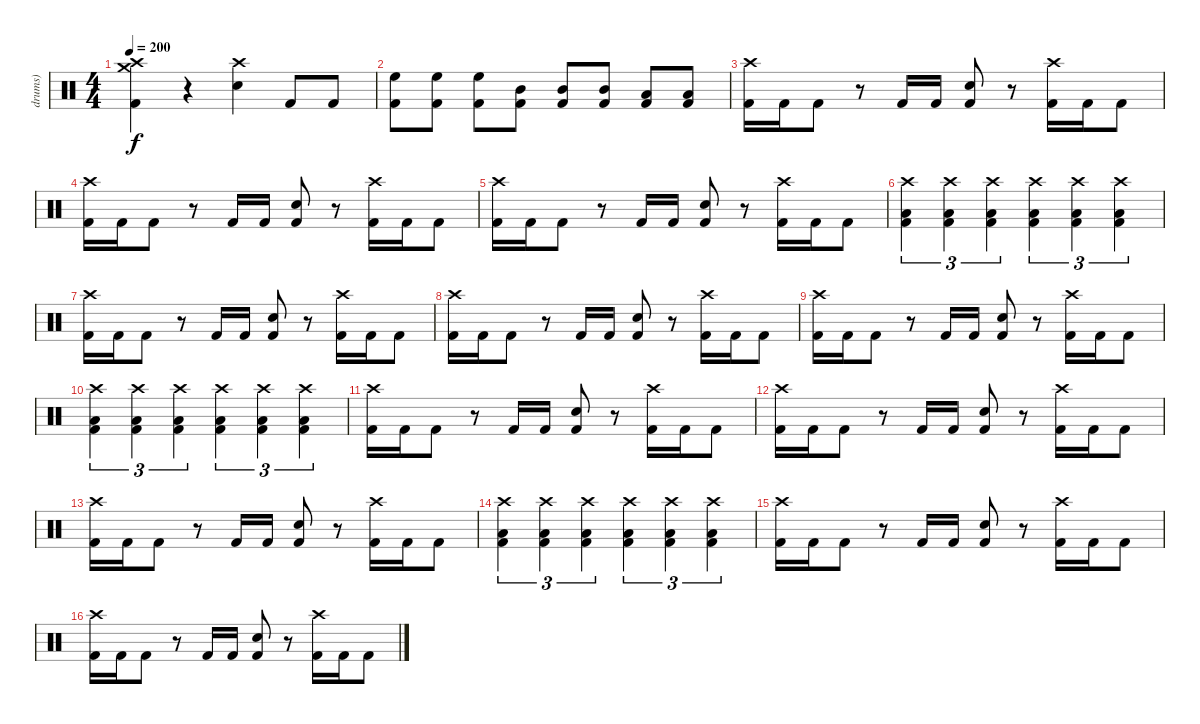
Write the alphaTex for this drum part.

\track ("drums)" "drums)") {instrument percussion}
\staff {score}
\articulation defaults
\ts (4 4)
\tempo 200
\clef neutral
\ks c
("Crash high (hit)" "Crash medium (hit)" "Kick (hit) 2").4{dy f} r.4 ("Crash high (hit)" "Electric Snare (hit)").4 "Kick (hit) 2".8 "Kick (hit) 2".8 |
("High Floor Tom (hit)" "Kick (hit) 2").8 ("High Floor Tom (hit)" "Kick (hit) 2").8 ("High Floor Tom (hit)" "Kick (hit) 2").8 ("Mid Tom (hit)" "Kick (hit) 2").8 ("Mid Tom (hit)" "Kick (hit) 2").8 ("Mid Tom (hit)" "Kick (hit) 2").8 ("Low Floor Tom (hit)" "Kick (hit) 2").8 ("Low Floor Tom (hit)" "Kick (hit) 2").8 |
("Crash high (hit)" "Kick (hit) 2").16 "Kick (hit) 2".16 "Kick (hit) 2".8 r.8 "Kick (hit) 2".16 "Kick (hit) 2".16 ("Electric Snare (hit)" "Kick (hit) 2").8 r.8 ("Crash high (hit)" "Kick (hit) 2").16 "Kick (hit) 2".16 "Kick (hit) 2".8 |
("Crash high (hit)" "Kick (hit) 2").16 "Kick (hit) 2".16 "Kick (hit) 2".8 r.8 "Kick (hit) 2".16 "Kick (hit) 2".16 ("Electric Snare (hit)" "Kick (hit) 2").8 r.8 ("Crash high (hit)" "Kick (hit) 2").16 "Kick (hit) 2".16 "Kick (hit) 2".8 |
("Crash high (hit)" "Kick (hit) 2").16 "Kick (hit) 2".16 "Kick (hit) 2".8 r.8 "Kick (hit) 2".16 "Kick (hit) 2".16 ("Electric Snare (hit)" "Kick (hit) 2").8 r.8 ("Crash high (hit)" "Kick (hit) 2").16 "Kick (hit) 2".16 "Kick (hit) 2".8 |
("Crash high (hit)" "Low Floor Tom (hit)" "Kick (hit) 2").4{tu (3 2)} ("Crash high (hit)" "Low Floor Tom (hit)" "Kick (hit) 2").4{tu (3 2)} ("Crash high (hit)" "Low Floor Tom (hit)" "Kick (hit) 2").4{tu (3 2)} ("Crash high (hit)" "Low Floor Tom (hit)" "Kick (hit) 2").4{tu (3 2)} ("Crash high (hit)" "Low Floor Tom (hit)" "Kick (hit) 2").4{tu (3 2)} ("Crash high (hit)" "Low Floor Tom (hit)" "Kick (hit) 2").4{tu (3 2)} |
("Crash high (hit)" "Kick (hit) 2").16 "Kick (hit) 2".16 "Kick (hit) 2".8 r.8 "Kick (hit) 2".16 "Kick (hit) 2".16 ("Electric Snare (hit)" "Kick (hit) 2").8 r.8 ("Crash high (hit)" "Kick (hit) 2").16 "Kick (hit) 2".16 "Kick (hit) 2".8 |
("Crash high (hit)" "Kick (hit) 2").16 "Kick (hit) 2".16 "Kick (hit) 2".8 r.8 "Kick (hit) 2".16 "Kick (hit) 2".16 ("Electric Snare (hit)" "Kick (hit) 2").8 r.8 ("Crash high (hit)" "Kick (hit) 2").16 "Kick (hit) 2".16 "Kick (hit) 2".8 |
("Crash high (hit)" "Kick (hit) 2").16 "Kick (hit) 2".16 "Kick (hit) 2".8 r.8 "Kick (hit) 2".16 "Kick (hit) 2".16 ("Electric Snare (hit)" "Kick (hit) 2").8 r.8 ("Crash high (hit)" "Kick (hit) 2").16 "Kick (hit) 2".16 "Kick (hit) 2".8 |
("Crash high (hit)" "Low Floor Tom (hit)" "Kick (hit) 2").4{tu (3 2)} ("Crash high (hit)" "Low Floor Tom (hit)" "Kick (hit) 2").4{tu (3 2)} ("Crash high (hit)" "Low Floor Tom (hit)" "Kick (hit) 2").4{tu (3 2)} ("Crash high (hit)" "Low Floor Tom (hit)" "Kick (hit) 2").4{tu (3 2)} ("Crash high (hit)" "Low Floor Tom (hit)" "Kick (hit) 2").4{tu (3 2)} ("Crash high (hit)" "Low Floor Tom (hit)" "Kick (hit) 2").4{tu (3 2)} |
("Crash high (hit)" "Kick (hit) 2").16 "Kick (hit) 2".16 "Kick (hit) 2".8 r.8 "Kick (hit) 2".16 "Kick (hit) 2".16 ("Electric Snare (hit)" "Kick (hit) 2").8 r.8 ("Crash high (hit)" "Kick (hit) 2").16 "Kick (hit) 2".16 "Kick (hit) 2".8 |
("Crash high (hit)" "Kick (hit) 2").16 "Kick (hit) 2".16 "Kick (hit) 2".8 r.8 "Kick (hit) 2".16 "Kick (hit) 2".16 ("Electric Snare (hit)" "Kick (hit) 2").8 r.8 ("Crash high (hit)" "Kick (hit) 2").16 "Kick (hit) 2".16 "Kick (hit) 2".8 |
("Crash high (hit)" "Kick (hit) 2").16 "Kick (hit) 2".16 "Kick (hit) 2".8 r.8 "Kick (hit) 2".16 "Kick (hit) 2".16 ("Electric Snare (hit)" "Kick (hit) 2").8 r.8 ("Crash high (hit)" "Kick (hit) 2").16 "Kick (hit) 2".16 "Kick (hit) 2".8 |
("Crash high (hit)" "Low Floor Tom (hit)" "Kick (hit) 2").4{tu (3 2)} ("Crash high (hit)" "Low Floor Tom (hit)" "Kick (hit) 2").4{tu (3 2)} ("Crash high (hit)" "Low Floor Tom (hit)" "Kick (hit) 2").4{tu (3 2)} ("Crash high (hit)" "Low Floor Tom (hit)" "Kick (hit) 2").4{tu (3 2)} ("Crash high (hit)" "Low Floor Tom (hit)" "Kick (hit) 2").4{tu (3 2)} ("Crash high (hit)" "Low Floor Tom (hit)" "Kick (hit) 2").4{tu (3 2)} |
("Crash high (hit)" "Kick (hit) 2").16 "Kick (hit) 2".16 "Kick (hit) 2".8 r.8 "Kick (hit) 2".16 "Kick (hit) 2".16 ("Electric Snare (hit)" "Kick (hit) 2").8 r.8 ("Crash high (hit)" "Kick (hit) 2").16 "Kick (hit) 2".16 "Kick (hit) 2".8 |
("Crash high (hit)" "Kick (hit) 2").16 "Kick (hit) 2".16 "Kick (hit) 2".8 r.8 "Kick (hit) 2".16 "Kick (hit) 2".16 ("Electric Snare (hit)" "Kick (hit) 2").8 r.8 ("Crash high (hit)" "Kick (hit) 2").16 "Kick (hit) 2".16 "Kick (hit) 2".8
